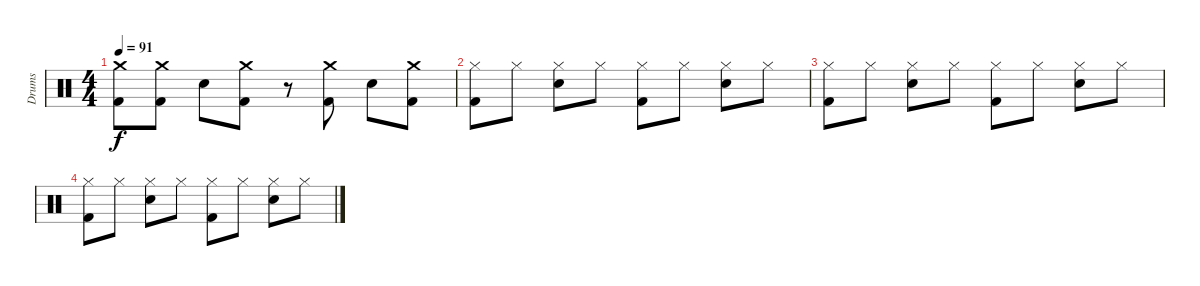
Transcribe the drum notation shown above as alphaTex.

\track ("Drums" "Drums") {instrument percussion}
\staff {score}
\articulation defaults
\ts (4 4)
\tempo 91
\clef neutral
\ks c
("Crash medium (hit)" "Kick (hit) 2").8{dy f} ("Crash medium (hit)" "Kick (hit) 2").8 "Electric Snare (hit)".8 ("Crash medium (hit)" "Kick (hit) 2").8 r.8 ("Crash medium (hit)" "Kick (hit) 2").8 "Electric Snare (hit)".8 ("Crash medium (hit)" "Kick (hit) 2").8 |
("Hi-Hat (closed)" "Kick (hit) 2").8 "Hi-Hat (closed)".8 ("Hi-Hat (closed)" "Electric Snare (hit)").8 "Hi-Hat (closed)".8 ("Hi-Hat (closed)" "Kick (hit) 2").8 "Hi-Hat (closed)".8 ("Hi-Hat (closed)" "Electric Snare (hit)").8 "Hi-Hat (closed)".8 |
("Hi-Hat (closed)" "Kick (hit) 2").8 "Hi-Hat (closed)".8 ("Hi-Hat (closed)" "Electric Snare (hit)").8 "Hi-Hat (closed)".8 ("Hi-Hat (closed)" "Kick (hit) 2").8 "Hi-Hat (closed)".8 ("Hi-Hat (closed)" "Electric Snare (hit)").8 "Hi-Hat (closed)".8 |
("Hi-Hat (closed)" "Kick (hit) 2").8 "Hi-Hat (closed)".8 ("Hi-Hat (closed)" "Electric Snare (hit)").8 "Hi-Hat (closed)".8 ("Hi-Hat (closed)" "Kick (hit) 2").8 "Hi-Hat (closed)".8 ("Hi-Hat (closed)" "Electric Snare (hit)").8 "Hi-Hat (closed)".8
